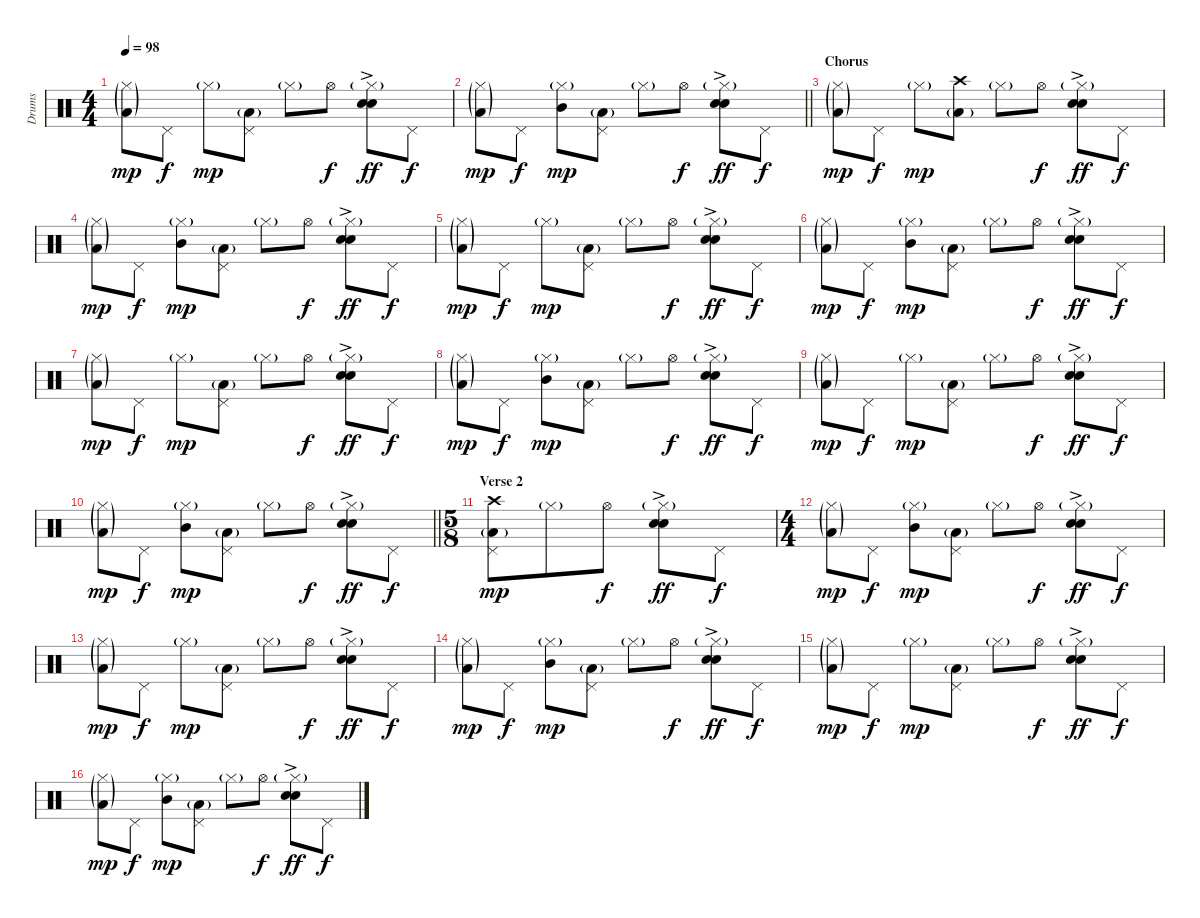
\track ("Drums" "Drums") {instrument percussion}
\staff {score}
\articulation defaults
\ts (4 4)
\tempo 98
\clef neutral
\ks c
("Hi-Hat (closed)"{g} "Low Tom (hit)"{g}).8{dy mp} "Pedal Hi-Hat (hit)".8{dy f} "Hi-Hat (closed)"{g}.8{dy mp} ("Pedal Hi-Hat (hit)" "Low Tom (hit)"{g}).8 "Hi-Hat (closed)"{g}.8 "Hi-Hat (open)".8{dy f} ("Hi-Hat (closed)"{g} "Snare (hit) 2"{ac} "Snare (hit) 2"{ac}).8{dy ff} "Pedal Hi-Hat (hit)".8{dy f} |
\barLineRight lightlight
("Hi-Hat (closed)"{g} "Low Tom (hit)"{g}).8{dy mp} "Pedal Hi-Hat (hit)".8{dy f} ("Hi-Hat (closed)"{g} "Mid Tom (hit)").8{dy mp} ("Pedal Hi-Hat (hit)" "Low Tom (hit)"{g}).8 "Hi-Hat (closed)"{g}.8 "Hi-Hat (open)".8{dy f} ("Hi-Hat (closed)"{g} "Snare (hit) 2"{ac} "Snare (hit) 2"{ac}).8{dy ff} "Pedal Hi-Hat (hit)".8{dy f} |
\section ("" "Chorus")
("Hi-Hat (closed)"{g} "Low Tom (hit)"{g}).8{dy mp} "Pedal Hi-Hat (hit)".8{dy f} "Hi-Hat (closed)"{g}.8{dy mp} ("Crash high (hit)" "Low Tom (hit)"{g}).8 "Hi-Hat (closed)"{g}.8 "Hi-Hat (open)".8{dy f} ("Hi-Hat (closed)"{g} "Snare (hit) 2"{ac} "Snare (hit) 2"{ac}).8{dy ff} "Pedal Hi-Hat (hit)".8{dy f} |
("Hi-Hat (closed)"{g} "Low Tom (hit)"{g}).8{dy mp} "Pedal Hi-Hat (hit)".8{dy f} ("Hi-Hat (closed)"{g} "Mid Tom (hit)").8{dy mp} ("Pedal Hi-Hat (hit)" "Low Tom (hit)"{g}).8 "Hi-Hat (closed)"{g}.8 "Hi-Hat (open)".8{dy f} ("Hi-Hat (closed)"{g} "Snare (hit) 2"{ac} "Snare (hit) 2"{ac}).8{dy ff} "Pedal Hi-Hat (hit)".8{dy f} |
("Hi-Hat (closed)"{g} "Low Tom (hit)"{g}).8{dy mp} "Pedal Hi-Hat (hit)".8{dy f} "Hi-Hat (closed)"{g}.8{dy mp} ("Pedal Hi-Hat (hit)" "Low Tom (hit)"{g}).8 "Hi-Hat (closed)"{g}.8 "Hi-Hat (open)".8{dy f} ("Hi-Hat (closed)"{g} "Snare (hit) 2"{ac} "Snare (hit) 2"{ac}).8{dy ff} "Pedal Hi-Hat (hit)".8{dy f} |
("Hi-Hat (closed)"{g} "Low Tom (hit)"{g}).8{dy mp} "Pedal Hi-Hat (hit)".8{dy f} ("Hi-Hat (closed)"{g} "Mid Tom (hit)").8{dy mp} ("Pedal Hi-Hat (hit)" "Low Tom (hit)"{g}).8 "Hi-Hat (closed)"{g}.8 "Hi-Hat (open)".8{dy f} ("Hi-Hat (closed)"{g} "Snare (hit) 2"{ac} "Snare (hit) 2"{ac}).8{dy ff} "Pedal Hi-Hat (hit)".8{dy f} |
("Hi-Hat (closed)"{g} "Low Tom (hit)"{g}).8{dy mp} "Pedal Hi-Hat (hit)".8{dy f} "Hi-Hat (closed)"{g}.8{dy mp} ("Pedal Hi-Hat (hit)" "Low Tom (hit)"{g}).8 "Hi-Hat (closed)"{g}.8 "Hi-Hat (open)".8{dy f} ("Hi-Hat (closed)"{g} "Snare (hit) 2"{ac} "Snare (hit) 2"{ac}).8{dy ff} "Pedal Hi-Hat (hit)".8{dy f} |
("Hi-Hat (closed)"{g} "Low Tom (hit)"{g}).8{dy mp} "Pedal Hi-Hat (hit)".8{dy f} ("Hi-Hat (closed)"{g} "Mid Tom (hit)").8{dy mp} ("Pedal Hi-Hat (hit)" "Low Tom (hit)"{g}).8 "Hi-Hat (closed)"{g}.8 "Hi-Hat (open)".8{dy f} ("Hi-Hat (closed)"{g} "Snare (hit) 2"{ac} "Snare (hit) 2"{ac}).8{dy ff} "Pedal Hi-Hat (hit)".8{dy f} |
("Hi-Hat (closed)"{g} "Low Tom (hit)"{g}).8{dy mp} "Pedal Hi-Hat (hit)".8{dy f} "Hi-Hat (closed)"{g}.8{dy mp} ("Pedal Hi-Hat (hit)" "Low Tom (hit)"{g}).8 "Hi-Hat (closed)"{g}.8 "Hi-Hat (open)".8{dy f} ("Hi-Hat (closed)"{g} "Snare (hit) 2"{ac} "Snare (hit) 2"{ac}).8{dy ff} "Pedal Hi-Hat (hit)".8{dy f} |
\barLineRight lightlight
("Hi-Hat (closed)"{g} "Low Tom (hit)"{g}).8{dy mp} "Pedal Hi-Hat (hit)".8{dy f} ("Hi-Hat (closed)"{g} "Mid Tom (hit)").8{dy mp} ("Pedal Hi-Hat (hit)" "Low Tom (hit)"{g}).8 "Hi-Hat (closed)"{g}.8 "Hi-Hat (open)".8{dy f} ("Hi-Hat (closed)"{g} "Snare (hit) 2"{ac} "Snare (hit) 2"{ac}).8{dy ff} "Pedal Hi-Hat (hit)".8{dy f} |
\ts (5 8)
\section ("" "Verse 2")
("Pedal Hi-Hat (hit)" "Crash high (hit)" "Low Tom (hit)"{g}).8{dy mp} "Hi-Hat (closed)"{g}.8 "Hi-Hat (open)".8{dy f} ("Hi-Hat (closed)"{g} "Snare (hit) 2"{ac} "Snare (hit) 2"{ac}).8{dy ff} "Pedal Hi-Hat (hit)".8{dy f} |
\ts (4 4)
("Hi-Hat (closed)"{g} "Low Tom (hit)"{g}).8{dy mp} "Pedal Hi-Hat (hit)".8{dy f} ("Hi-Hat (closed)"{g} "Mid Tom (hit)").8{dy mp} ("Pedal Hi-Hat (hit)" "Low Tom (hit)"{g}).8 "Hi-Hat (closed)"{g}.8 "Hi-Hat (open)".8{dy f} ("Hi-Hat (closed)"{g} "Snare (hit) 2"{ac} "Snare (hit) 2"{ac}).8{dy ff} "Pedal Hi-Hat (hit)".8{dy f} |
("Hi-Hat (closed)"{g} "Low Tom (hit)"{g}).8{dy mp} "Pedal Hi-Hat (hit)".8{dy f} "Hi-Hat (closed)"{g}.8{dy mp} ("Pedal Hi-Hat (hit)" "Low Tom (hit)"{g}).8 "Hi-Hat (closed)"{g}.8 "Hi-Hat (open)".8{dy f} ("Hi-Hat (closed)"{g} "Snare (hit) 2"{ac} "Snare (hit) 2"{ac}).8{dy ff} "Pedal Hi-Hat (hit)".8{dy f} |
("Hi-Hat (closed)"{g} "Low Tom (hit)"{g}).8{dy mp} "Pedal Hi-Hat (hit)".8{dy f} ("Hi-Hat (closed)"{g} "Mid Tom (hit)").8{dy mp} ("Pedal Hi-Hat (hit)" "Low Tom (hit)"{g}).8 "Hi-Hat (closed)"{g}.8 "Hi-Hat (open)".8{dy f} ("Hi-Hat (closed)"{g} "Snare (hit) 2"{ac} "Snare (hit) 2"{ac}).8{dy ff} "Pedal Hi-Hat (hit)".8{dy f} |
("Hi-Hat (closed)"{g} "Low Tom (hit)"{g}).8{dy mp} "Pedal Hi-Hat (hit)".8{dy f} "Hi-Hat (closed)"{g}.8{dy mp} ("Pedal Hi-Hat (hit)" "Low Tom (hit)"{g}).8 "Hi-Hat (closed)"{g}.8 "Hi-Hat (open)".8{dy f} ("Hi-Hat (closed)"{g} "Snare (hit) 2"{ac} "Snare (hit) 2"{ac}).8{dy ff} "Pedal Hi-Hat (hit)".8{dy f} |
("Hi-Hat (closed)"{g} "Low Tom (hit)"{g}).8{dy mp} "Pedal Hi-Hat (hit)".8{dy f} ("Hi-Hat (closed)"{g} "Mid Tom (hit)").8{dy mp} ("Pedal Hi-Hat (hit)" "Low Tom (hit)"{g}).8 "Hi-Hat (closed)"{g}.8 "Hi-Hat (open)".8{dy f} ("Hi-Hat (closed)"{g} "Snare (hit) 2"{ac} "Snare (hit) 2"{ac}).8{dy ff} "Pedal Hi-Hat (hit)".8{dy f}
